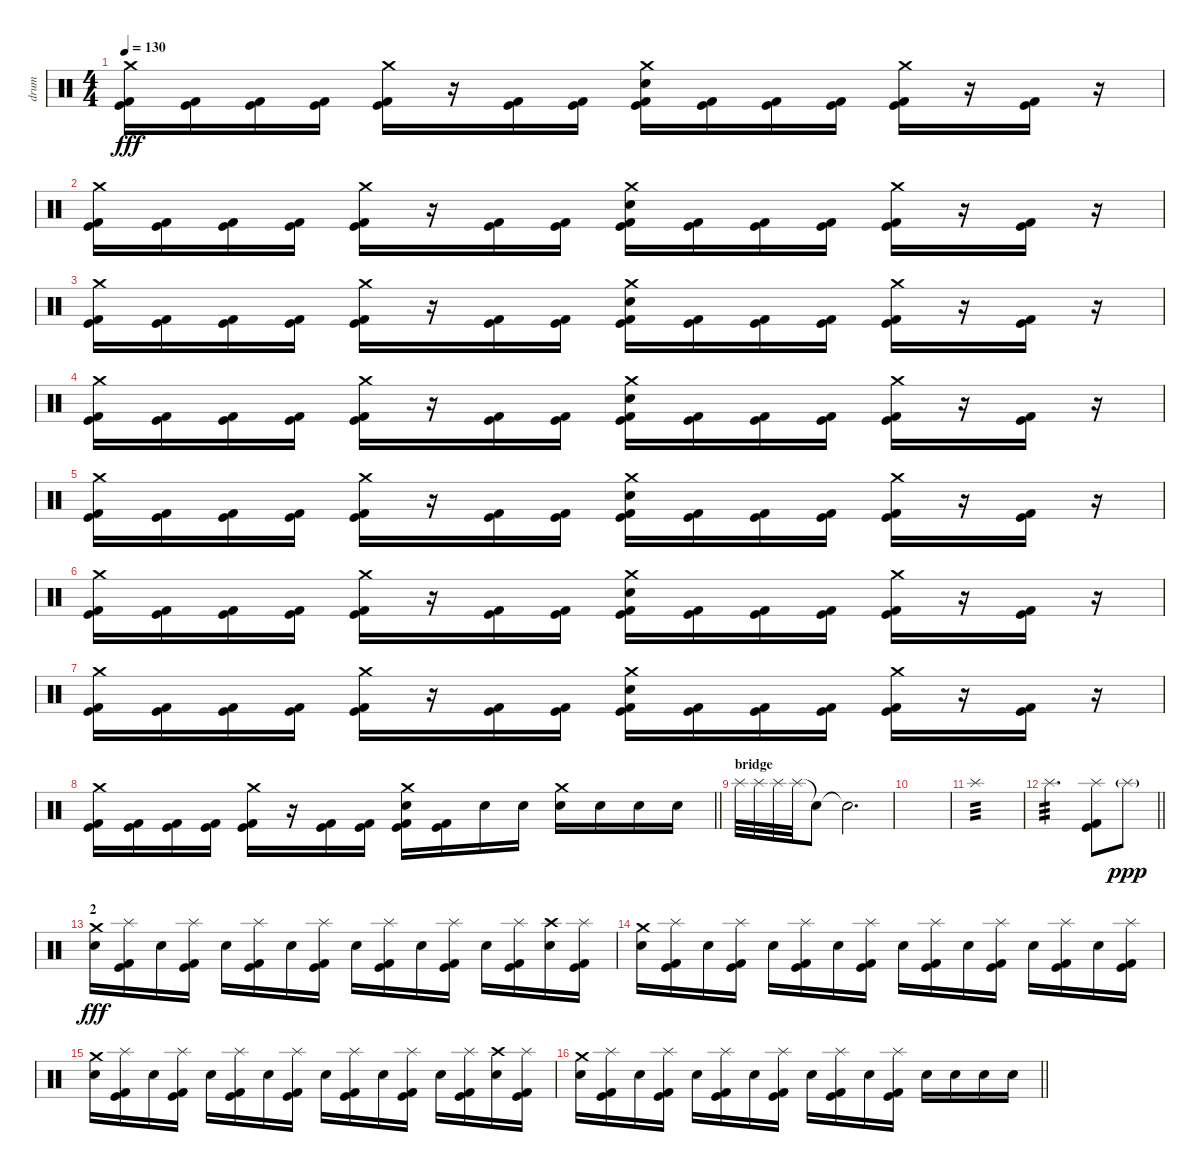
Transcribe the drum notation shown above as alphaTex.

\track ("drum" "drum") {instrument percussion}
\staff {score}
\articulation defaults
\ts (4 4)
\tempo 130
\clef neutral
\ks c
("Crash medium (hit)" "Kick (hit)" "Kick (hit) 2").16{dy fff} ("Kick (hit)" "Kick (hit) 2").16 ("Kick (hit)" "Kick (hit) 2").16 ("Kick (hit)" "Kick (hit) 2").16 ("Crash medium (hit)" "Kick (hit)" "Kick (hit) 2").16 r.16 ("Kick (hit)" "Kick (hit) 2").16 ("Kick (hit)" "Kick (hit) 2").16 ("Crash medium (hit)" "Snare (hit) 2" "Kick (hit)" "Kick (hit) 2").16 ("Kick (hit)" "Kick (hit) 2").16 ("Kick (hit)" "Kick (hit) 2").16 ("Kick (hit)" "Kick (hit) 2").16 ("Crash medium (hit)" "Kick (hit)" "Kick (hit) 2").16 r.16 ("Kick (hit)" "Kick (hit) 2").16 r.16 |
("Crash medium (hit)" "Kick (hit)" "Kick (hit) 2").16 ("Kick (hit)" "Kick (hit) 2").16 ("Kick (hit)" "Kick (hit) 2").16 ("Kick (hit)" "Kick (hit) 2").16 ("Crash medium (hit)" "Kick (hit)" "Kick (hit) 2").16 r.16 ("Kick (hit)" "Kick (hit) 2").16 ("Kick (hit)" "Kick (hit) 2").16 ("Crash medium (hit)" "Snare (hit) 2" "Kick (hit)" "Kick (hit) 2").16 ("Kick (hit)" "Kick (hit) 2").16 ("Kick (hit)" "Kick (hit) 2").16 ("Kick (hit)" "Kick (hit) 2").16 ("Crash medium (hit)" "Kick (hit)" "Kick (hit) 2").16 r.16 ("Kick (hit)" "Kick (hit) 2").16 r.16 |
("Crash medium (hit)" "Kick (hit)" "Kick (hit) 2").16 ("Kick (hit)" "Kick (hit) 2").16 ("Kick (hit)" "Kick (hit) 2").16 ("Kick (hit)" "Kick (hit) 2").16 ("Crash medium (hit)" "Kick (hit)" "Kick (hit) 2").16 r.16 ("Kick (hit)" "Kick (hit) 2").16 ("Kick (hit)" "Kick (hit) 2").16 ("Crash medium (hit)" "Snare (hit) 2" "Kick (hit)" "Kick (hit) 2").16 ("Kick (hit)" "Kick (hit) 2").16 ("Kick (hit)" "Kick (hit) 2").16 ("Kick (hit)" "Kick (hit) 2").16 ("Crash medium (hit)" "Kick (hit)" "Kick (hit) 2").16 r.16 ("Kick (hit)" "Kick (hit) 2").16 r.16 |
("Crash medium (hit)" "Kick (hit)" "Kick (hit) 2").16 ("Kick (hit)" "Kick (hit) 2").16 ("Kick (hit)" "Kick (hit) 2").16 ("Kick (hit)" "Kick (hit) 2").16 ("Crash medium (hit)" "Kick (hit)" "Kick (hit) 2").16 r.16 ("Kick (hit)" "Kick (hit) 2").16 ("Kick (hit)" "Kick (hit) 2").16 ("Crash medium (hit)" "Snare (hit) 2" "Kick (hit)" "Kick (hit) 2").16 ("Kick (hit)" "Kick (hit) 2").16 ("Kick (hit)" "Kick (hit) 2").16 ("Kick (hit)" "Kick (hit) 2").16 ("Crash medium (hit)" "Kick (hit)" "Kick (hit) 2").16 r.16 ("Kick (hit)" "Kick (hit) 2").16 r.16 |
("Crash medium (hit)" "Kick (hit)" "Kick (hit) 2").16 ("Kick (hit)" "Kick (hit) 2").16 ("Kick (hit)" "Kick (hit) 2").16 ("Kick (hit)" "Kick (hit) 2").16 ("Crash medium (hit)" "Kick (hit)" "Kick (hit) 2").16 r.16 ("Kick (hit)" "Kick (hit) 2").16 ("Kick (hit)" "Kick (hit) 2").16 ("Crash medium (hit)" "Snare (hit) 2" "Kick (hit)" "Kick (hit) 2").16 ("Kick (hit)" "Kick (hit) 2").16 ("Kick (hit)" "Kick (hit) 2").16 ("Kick (hit)" "Kick (hit) 2").16 ("Crash medium (hit)" "Kick (hit)" "Kick (hit) 2").16 r.16 ("Kick (hit)" "Kick (hit) 2").16 r.16 |
("Crash medium (hit)" "Kick (hit)" "Kick (hit) 2").16 ("Kick (hit)" "Kick (hit) 2").16 ("Kick (hit)" "Kick (hit) 2").16 ("Kick (hit)" "Kick (hit) 2").16 ("Crash medium (hit)" "Kick (hit)" "Kick (hit) 2").16 r.16 ("Kick (hit)" "Kick (hit) 2").16 ("Kick (hit)" "Kick (hit) 2").16 ("Crash medium (hit)" "Snare (hit) 2" "Kick (hit)" "Kick (hit) 2").16 ("Kick (hit)" "Kick (hit) 2").16 ("Kick (hit)" "Kick (hit) 2").16 ("Kick (hit)" "Kick (hit) 2").16 ("Crash medium (hit)" "Kick (hit)" "Kick (hit) 2").16 r.16 ("Kick (hit)" "Kick (hit) 2").16 r.16 |
("Crash medium (hit)" "Kick (hit)" "Kick (hit) 2").16 ("Kick (hit)" "Kick (hit) 2").16 ("Kick (hit)" "Kick (hit) 2").16 ("Kick (hit)" "Kick (hit) 2").16 ("Crash medium (hit)" "Kick (hit)" "Kick (hit) 2").16 r.16 ("Kick (hit)" "Kick (hit) 2").16 ("Kick (hit)" "Kick (hit) 2").16 ("Crash medium (hit)" "Snare (hit) 2" "Kick (hit)" "Kick (hit) 2").16 ("Kick (hit)" "Kick (hit) 2").16 ("Kick (hit)" "Kick (hit) 2").16 ("Kick (hit)" "Kick (hit) 2").16 ("Crash medium (hit)" "Kick (hit)" "Kick (hit) 2").16 r.16 ("Kick (hit)" "Kick (hit) 2").16 r.16 |
\barLineRight lightlight
("Crash medium (hit)" "Kick (hit)" "Kick (hit) 2").16 ("Kick (hit)" "Kick (hit) 2").16 ("Kick (hit)" "Kick (hit) 2").16 ("Kick (hit)" "Kick (hit) 2").16 ("Crash medium (hit)" "Kick (hit)" "Kick (hit) 2").16 r.16 ("Kick (hit)" "Kick (hit) 2").16 ("Kick (hit)" "Kick (hit) 2").16 ("Crash medium (hit)" "Snare (hit) 2" "Kick (hit)" "Kick (hit) 2").16 ("Kick (hit)" "Kick (hit) 2").16 "Snare (hit) 2".16 "Snare (hit) 2".16 ("Crash medium (hit)" "Snare (hit) 2").16 "Snare (hit) 2".16 "Snare (hit) 2".16 "Snare (hit) 2".16 |
\section ("" "bridge")
"Splash (hit)".32 "Splash (hit)".32 "Splash (hit)".32 "Splash (hit)".32 "Snare (hit)"{t}.8 "Snare (hit)"{t}.2{d} |
|
"Splash (hit)".1{tp 3 volume 10} |
\barLineRight lightlight "Splash (hit)".2{d tp 3 volume 16}
("Splash (hit)" "Kick (hit)" "Kick (hit) 2").8 "Splash (hit)"{g}.8{dy ppp} |
\section ("" "2")
("Crash medium (hit)" "Snare (hit) 2").16{dy fff} ("Splash (hit)" "Kick (hit)" "Kick (hit) 2").16 "Snare (hit) 2".16 ("Splash (hit)" "Kick (hit)" "Kick (hit) 2").16 "Snare (hit) 2".16 ("Splash (hit)" "Kick (hit)" "Kick (hit) 2").16 "Snare (hit) 2".16 ("Splash (hit)" "Kick (hit)" "Kick (hit) 2").16 "Snare (hit) 2".16 ("Splash (hit)" "Kick (hit)" "Kick (hit) 2").16 "Snare (hit) 2".16 ("Splash (hit)" "Kick (hit)" "Kick (hit) 2").16 "Snare (hit) 2".16 ("Splash (hit)" "Kick (hit)" "Kick (hit) 2").16 ("Crash high (hit)" "Snare (hit) 2").16 ("Splash (hit)" "Kick (hit)" "Kick (hit) 2").16 |
("Crash medium (hit)" "Snare (hit) 2").16 ("Splash (hit)" "Kick (hit)" "Kick (hit) 2").16 "Snare (hit) 2".16 ("Splash (hit)" "Kick (hit)" "Kick (hit) 2").16 "Snare (hit) 2".16 ("Splash (hit)" "Kick (hit)" "Kick (hit) 2").16 "Snare (hit) 2".16 ("Splash (hit)" "Kick (hit)" "Kick (hit) 2").16 "Snare (hit) 2".16 ("Splash (hit)" "Kick (hit)" "Kick (hit) 2").16 "Snare (hit) 2".16 ("Splash (hit)" "Kick (hit)" "Kick (hit) 2").16 "Snare (hit) 2".16 ("Splash (hit)" "Kick (hit)" "Kick (hit) 2").16 "Snare (hit) 2".16 ("Splash (hit)" "Kick (hit)" "Kick (hit) 2").16 |
("Crash medium (hit)" "Snare (hit) 2").16 ("Splash (hit)" "Kick (hit)" "Kick (hit) 2").16 "Snare (hit) 2".16 ("Splash (hit)" "Kick (hit)" "Kick (hit) 2").16 "Snare (hit) 2".16 ("Splash (hit)" "Kick (hit)" "Kick (hit) 2").16 "Snare (hit) 2".16 ("Splash (hit)" "Kick (hit)" "Kick (hit) 2").16 "Snare (hit) 2".16 ("Splash (hit)" "Kick (hit)" "Kick (hit) 2").16 "Snare (hit) 2".16 ("Splash (hit)" "Kick (hit)" "Kick (hit) 2").16 "Snare (hit) 2".16 ("Splash (hit)" "Kick (hit)" "Kick (hit) 2").16 ("Crash high (hit)" "Snare (hit) 2").16 ("Splash (hit)" "Kick (hit)" "Kick (hit) 2").16 |
\barLineRight lightlight
("Crash medium (hit)" "Snare (hit) 2").16 ("Splash (hit)" "Kick (hit)" "Kick (hit) 2").16 "Snare (hit) 2".16 ("Splash (hit)" "Kick (hit)" "Kick (hit) 2").16 "Snare (hit) 2".16 ("Splash (hit)" "Kick (hit)" "Kick (hit) 2").16 "Snare (hit) 2".16 ("Splash (hit)" "Kick (hit)" "Kick (hit) 2").16 "Snare (hit) 2".16 ("Splash (hit)" "Kick (hit)" "Kick (hit) 2").16 "Snare (hit) 2".16 ("Splash (hit)" "Kick (hit)" "Kick (hit) 2").16 "Snare (hit) 2".16 "Snare (hit) 2".16 "Snare (hit) 2".16 "Snare (hit) 2".16
